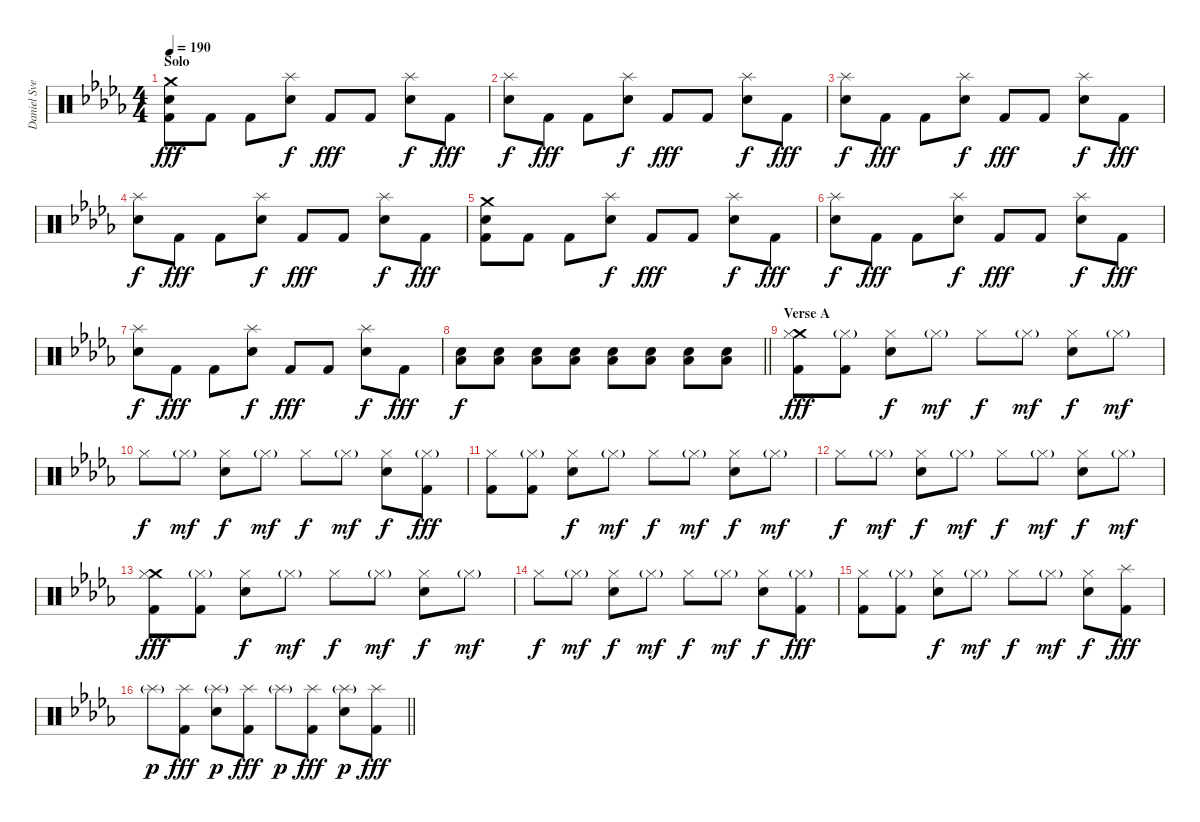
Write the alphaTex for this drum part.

\track ("Daniel Svensson" "Daniel Sve") {instrument percussion}
\staff {score}
\articulation defaults
\ts (4 4)
\section ("" "Solo")
\tempo 190
\clef neutral
\ks db
("Crash medium (hit)" "Electric Snare (hit)" "Kick (hit) 2").8{dy fff} "Kick (hit) 2".8 "Kick (hit) 2".8 ("Splash (hit)" "Electric Snare (hit)").8{dy f} "Kick (hit) 2".8{dy fff} "Kick (hit) 2".8 ("Splash (hit)" "Electric Snare (hit)").8{dy f} "Kick (hit) 2".8{dy fff} |
("Splash (hit)" "Electric Snare (hit)").8{dy f} "Kick (hit) 2".8{dy fff} "Kick (hit) 2".8 ("Splash (hit)" "Electric Snare (hit)").8{dy f} "Kick (hit) 2".8{dy fff} "Kick (hit) 2".8 ("Splash (hit)" "Electric Snare (hit)").8{dy f} "Kick (hit) 2".8{dy fff} |
("Splash (hit)" "Electric Snare (hit)").8{dy f} "Kick (hit) 2".8{dy fff} "Kick (hit) 2".8 ("Splash (hit)" "Electric Snare (hit)").8{dy f} "Kick (hit) 2".8{dy fff} "Kick (hit) 2".8 ("Splash (hit)" "Electric Snare (hit)").8{dy f} "Kick (hit) 2".8{dy fff} |
("Splash (hit)" "Electric Snare (hit)").8{dy f} "Kick (hit) 2".8{dy fff} "Kick (hit) 2".8 ("Splash (hit)" "Electric Snare (hit)").8{dy f} "Kick (hit) 2".8{dy fff} "Kick (hit) 2".8 ("Splash (hit)" "Electric Snare (hit)").8{dy f} "Kick (hit) 2".8{dy fff} |
("Crash medium (hit)" "Electric Snare (hit)" "Kick (hit) 2").8 "Kick (hit) 2".8 "Kick (hit) 2".8 ("Splash (hit)" "Electric Snare (hit)").8{dy f} "Kick (hit) 2".8{dy fff} "Kick (hit) 2".8 ("Splash (hit)" "Electric Snare (hit)").8{dy f} "Kick (hit) 2".8{dy fff} |
("Splash (hit)" "Electric Snare (hit)").8{dy f} "Kick (hit) 2".8{dy fff} "Kick (hit) 2".8 ("Splash (hit)" "Electric Snare (hit)").8{dy f} "Kick (hit) 2".8{dy fff} "Kick (hit) 2".8 ("Splash (hit)" "Electric Snare (hit)").8{dy f} "Kick (hit) 2".8{dy fff} |
("Splash (hit)" "Electric Snare (hit)").8{dy f} "Kick (hit) 2".8{dy fff} "Kick (hit) 2".8 ("Splash (hit)" "Electric Snare (hit)").8{dy f} "Kick (hit) 2".8{dy fff} "Kick (hit) 2".8 ("Splash (hit)" "Electric Snare (hit)").8{dy f} "Kick (hit) 2".8{dy fff} |
\barLineRight lightlight
("Low Floor Tom (hit)" "Electric Snare (hit)").8{dy f} ("Low Floor Tom (hit)" "Electric Snare (hit)").8 ("Low Floor Tom (hit)" "Electric Snare (hit)").8 ("Low Floor Tom (hit)" "Electric Snare (hit)").8 ("Low Floor Tom (hit)" "Electric Snare (hit)").8 ("Low Floor Tom (hit)" "Electric Snare (hit)").8 ("Low Floor Tom (hit)" "Electric Snare (hit)").8 ("Low Floor Tom (hit)" "Electric Snare (hit)").8 |
\section ("" "Verse A")
("Crash medium (hit)" "Hi-Hat (closed)" "Kick (hit) 2").8{dy fff} ("Hi-Hat (closed)"{g} "Kick (hit) 2").8 ("Hi-Hat (closed)" "Electric Snare (hit)").8{dy f} "Hi-Hat (closed)"{g}.8{dy mf} "Hi-Hat (closed)".8{dy f} "Hi-Hat (closed)"{g}.8{dy mf} ("Hi-Hat (closed)" "Electric Snare (hit)").8{dy f} "Hi-Hat (closed)"{g}.8{dy mf} |
"Hi-Hat (closed)".8{dy f} "Hi-Hat (closed)"{g}.8{dy mf} ("Hi-Hat (closed)" "Electric Snare (hit)").8{dy f} "Hi-Hat (closed)"{g}.8{dy mf} "Hi-Hat (closed)".8{dy f} "Hi-Hat (closed)"{g}.8{dy mf} ("Hi-Hat (closed)" "Electric Snare (hit)").8{dy f} ("Hi-Hat (closed)"{g} "Kick (hit) 2").8{dy fff} |
("Hi-Hat (closed)" "Kick (hit) 2").8 ("Hi-Hat (closed)"{g} "Kick (hit) 2").8 ("Hi-Hat (closed)" "Electric Snare (hit)").8{dy f} "Hi-Hat (closed)"{g}.8{dy mf} "Hi-Hat (closed)".8{dy f} "Hi-Hat (closed)"{g}.8{dy mf} ("Hi-Hat (closed)" "Electric Snare (hit)").8{dy f} "Hi-Hat (closed)"{g}.8{dy mf} |
"Hi-Hat (closed)".8{dy f} "Hi-Hat (closed)"{g}.8{dy mf} ("Hi-Hat (closed)" "Electric Snare (hit)").8{dy f} "Hi-Hat (closed)"{g}.8{dy mf} "Hi-Hat (closed)".8{dy f} "Hi-Hat (closed)"{g}.8{dy mf} ("Hi-Hat (closed)" "Electric Snare (hit)").8{dy f} "Hi-Hat (closed)"{g}.8{dy mf} |
("Crash medium (hit)" "Hi-Hat (closed)" "Kick (hit) 2").8{dy fff} ("Hi-Hat (closed)"{g} "Kick (hit) 2").8 ("Hi-Hat (closed)" "Electric Snare (hit)").8{dy f} "Hi-Hat (closed)"{g}.8{dy mf} "Hi-Hat (closed)".8{dy f} "Hi-Hat (closed)"{g}.8{dy mf} ("Hi-Hat (closed)" "Electric Snare (hit)").8{dy f} "Hi-Hat (closed)"{g}.8{dy mf} |
"Hi-Hat (closed)".8{dy f} "Hi-Hat (closed)"{g}.8{dy mf} ("Hi-Hat (closed)" "Electric Snare (hit)").8{dy f} "Hi-Hat (closed)"{g}.8{dy mf} "Hi-Hat (closed)".8{dy f} "Hi-Hat (closed)"{g}.8{dy mf} ("Hi-Hat (closed)" "Electric Snare (hit)").8{dy f} ("Hi-Hat (closed)"{g} "Kick (hit) 2").8{dy fff} |
("Hi-Hat (closed)" "Kick (hit) 2").8 ("Hi-Hat (closed)"{g} "Kick (hit) 2").8 ("Hi-Hat (closed)" "Electric Snare (hit)").8{dy f} "Hi-Hat (closed)"{g}.8{dy mf} "Hi-Hat (closed)".8{dy f} "Hi-Hat (closed)"{g}.8{dy mf} ("Hi-Hat (closed)" "Electric Snare (hit)").8{dy f} ("Splash (hit)" "Kick (hit) 2").8{dy fff} |
\barLineRight lightlight "Splash (hit)"{g}.8{dy p}
("Splash (hit)" "Kick (hit) 2").8{dy fff} ("Splash (hit)"{g} "Electric Snare (hit)").8{dy p} ("Splash (hit)" "Kick (hit) 2").8{dy fff} "Splash (hit)"{g}.8{dy p} ("Splash (hit)" "Kick (hit) 2").8{dy fff} ("Splash (hit)"{g} "Electric Snare (hit)").8{dy p} ("Splash (hit)" "Kick (hit) 2").8{dy fff}
